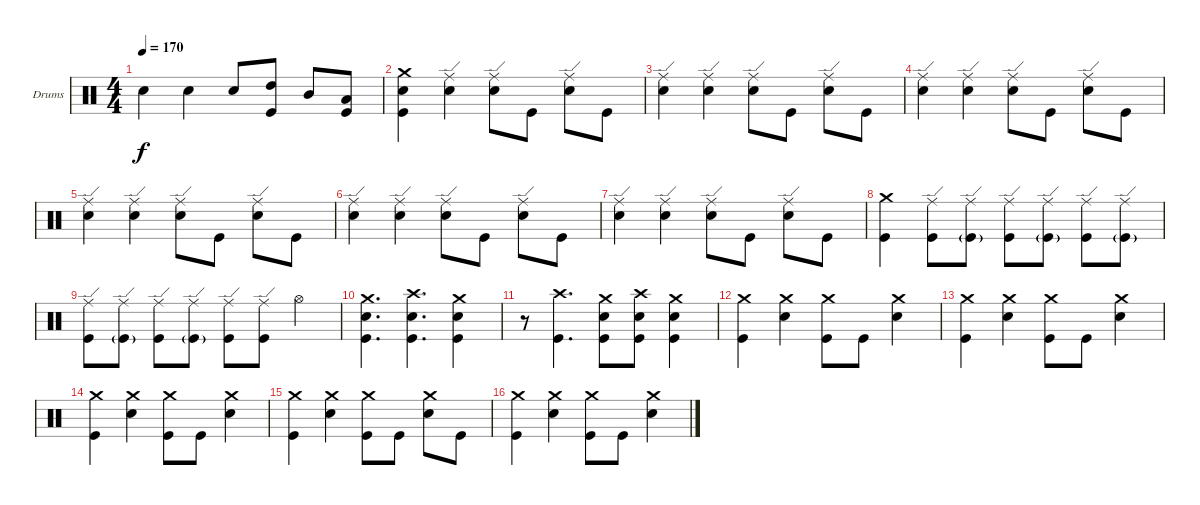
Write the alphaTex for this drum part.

\defaultSystemsLayout 4
\bracketExtendMode groupsimilarinstruments
\firstSystemTrackNameOrientation horizontal
\otherSystemsTrackNameOrientation horizontal
\track ("Drumkit" "Drums") {instrument percussion}
\staff {score}
\articulation defaults
\ts (4 4)
\tempo 170
\clef neutral
\ks c "Snare (hit) 2".4{dy f} "Snare (hit) 2".4 "Snare (hit) 2".8
("High Tom (hit)" "Kick (hit)").8 "Mid Tom (hit)".8 ("Low Tom (hit)" "Kick (hit)").8 |
("Crash medium (hit)" "Snare (hit) 2" "Kick (hit)").4 ("Ride (edge)" "Snare (hit) 2").4 ("Ride (edge)" "Snare (hit) 2").8 "Kick (hit)".8 ("Ride (edge)" "Snare (hit) 2").8 "Kick (hit)".8 |
("Ride (edge)" "Snare (hit) 2").4 ("Ride (edge)" "Snare (hit) 2").4 ("Ride (edge)" "Snare (hit) 2").8 "Kick (hit)".8 ("Ride (edge)" "Snare (hit) 2").8 "Kick (hit)".8 |
("Ride (edge)" "Snare (hit) 2").4 ("Ride (edge)" "Snare (hit) 2").4 ("Ride (edge)" "Snare (hit) 2").8 "Kick (hit)".8 ("Ride (edge)" "Snare (hit) 2").8 "Kick (hit)".8 |
("Ride (edge)" "Snare (hit) 2").4 ("Ride (edge)" "Snare (hit) 2").4 ("Ride (edge)" "Snare (hit) 2").8 "Kick (hit)".8 ("Ride (edge)" "Snare (hit) 2").8 "Kick (hit)".8 |
("Ride (edge)" "Snare (hit) 2").4 ("Ride (edge)" "Snare (hit) 2").4 ("Ride (edge)" "Snare (hit) 2").8 "Kick (hit)".8 ("Ride (edge)" "Snare (hit) 2").8 "Kick (hit)".8 |
("Ride (edge)" "Snare (hit) 2").4 ("Ride (edge)" "Snare (hit) 2").4 ("Ride (edge)" "Snare (hit) 2").8 "Kick (hit)".8 ("Ride (edge)" "Snare (hit) 2").8 "Kick (hit)".8 |
("Crash medium (hit)" "Kick (hit)").4 ("Ride (edge)" "Kick (hit)").8 ("Ride (edge)" "Kick (hit)"{g}).8 ("Ride (edge)" "Kick (hit)").8 ("Ride (edge)" "Kick (hit)"{g}).8 ("Ride (edge)" "Kick (hit)").8 ("Ride (edge)" "Kick (hit)"{g}).8 |
("Ride (edge)" "Kick (hit)").8 ("Ride (edge)" "Kick (hit)"{g}).8 ("Ride (edge)" "Kick (hit)").8 ("Ride (edge)" "Kick (hit)"{g}).8 ("Ride (edge)" "Kick (hit)").8 ("Ride (edge)" "Kick (hit)").8 "Hi-Hat (open)".4 |
("Crash medium (hit)" "Snare (hit) 2" "Kick (hit)").4{d} ("Crash high (hit)" "Snare (hit) 2" "Kick (hit)").4{d} ("Crash medium (hit)" "Snare (hit) 2" "Kick (hit)").4 |
r.8 ("Crash high (hit)" "Kick (hit)").4{d} ("Crash medium (hit)" "Snare (hit) 2" "Kick (hit)").8 ("Crash high (hit)" "Snare (hit) 2" "Kick (hit)").8 ("Crash medium (hit)" "Snare (hit) 2" "Kick (hit)").4 |
("Crash medium (hit)" "Kick (hit)").4 ("Crash medium (hit)" "Snare (hit) 2").4 ("Crash medium (hit)" "Kick (hit)").8 "Kick (hit)".8 ("Crash medium (hit)" "Snare (hit) 2").4 |
("Crash medium (hit)" "Kick (hit)").4 ("Crash medium (hit)" "Snare (hit) 2").4 ("Crash medium (hit)" "Kick (hit)").8 "Kick (hit)".8 ("Crash medium (hit)" "Snare (hit) 2").4 |
("Crash medium (hit)" "Kick (hit)").4 ("Crash medium (hit)" "Snare (hit) 2").4 ("Crash medium (hit)" "Kick (hit)").8 "Kick (hit)".8 ("Crash medium (hit)" "Snare (hit) 2").4 |
("Crash medium (hit)" "Kick (hit)").4 ("Crash medium (hit)" "Snare (hit) 2").4 ("Crash medium (hit)" "Kick (hit)").8 "Kick (hit)".8 ("Crash medium (hit)" "Snare (hit) 2").8 "Kick (hit)".8 |
("Crash medium (hit)" "Kick (hit)").4 ("Crash medium (hit)" "Snare (hit) 2").4 ("Crash medium (hit)" "Kick (hit)").8 "Kick (hit)".8 ("Crash medium (hit)" "Snare (hit) 2").4
